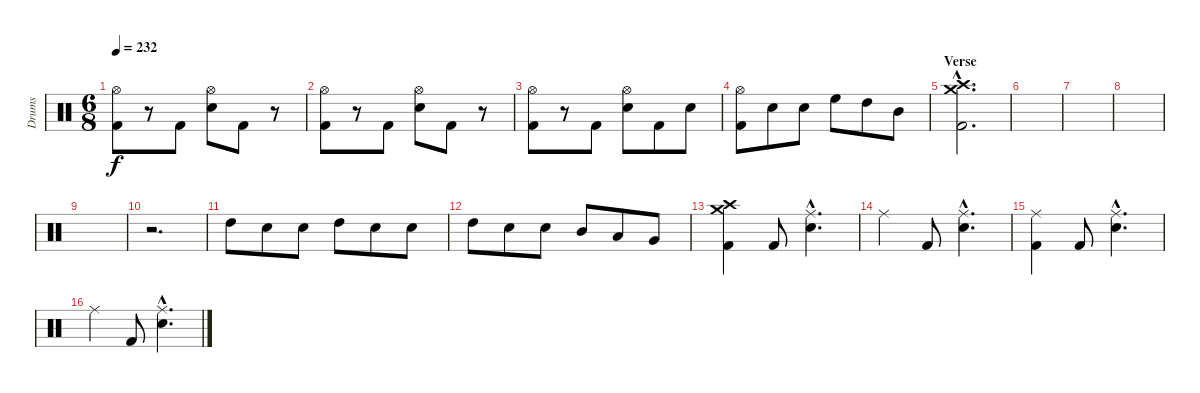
\track ("Drums" "Drums") {instrument percussion}
\staff {score}
\articulation defaults
\ts (6 8)
\tempo 232
\clef neutral
\ks c
("Hi-Hat (open)" "Kick (hit) 2").8{dy f} r.8 "Kick (hit) 2".8 ("Hi-Hat (open)" "Snare (hit) 2").8 "Kick (hit) 2".8 r.8 |
("Hi-Hat (open)" "Kick (hit) 2").8 r.8 "Kick (hit) 2".8 ("Hi-Hat (open)" "Snare (hit) 2").8 "Kick (hit) 2".8 r.8 |
("Hi-Hat (open)" "Kick (hit) 2").8 r.8 "Kick (hit) 2".8 ("Hi-Hat (open)" "Snare (hit) 2").8 "Kick (hit) 2".8 "Snare (hit) 2".8 |
("Hi-Hat (open)" "Kick (hit) 2").8 "Snare (hit) 2".8 "Snare (hit) 2".8 "High Floor Tom (hit)".8 "High Tom (hit)".8 "Mid Tom (hit)".8 |
\section ("" "Verse")
("Crash medium (hit)"{hac} "Crash high (hit)"{hac} "Kick (hit) 2"{hac}).2{d} |
|
|
|
|
r.2{d} |
"High Tom (hit)".8 "Snare (hit) 2".8 "Snare (hit) 2".8 "High Tom (hit)".8 "Snare (hit) 2".8 "Snare (hit) 2".8 |
"High Tom (hit)".8 "Snare (hit) 2".8 "Snare (hit) 2".8 "Mid Tom (hit)".8 "Low Tom (hit)".8 "Very Low Tom (hit)".8 |
("Crash medium (hit)" "Crash high (hit)" "Kick (hit) 2").4 "Kick (hit) 2".8 ("Ride (middle)"{hac} "Snare (hit) 2"{hac}).4{d} |
"Ride (middle)".4 "Kick (hit) 2".8 ("Ride (middle)"{hac} "Snare (hit) 2"{hac}).4{d} |
("Ride (middle)" "Kick (hit) 2").4 "Kick (hit) 2".8 ("Ride (middle)"{hac} "Snare (hit) 2"{hac}).4{d} |
"Ride (middle)".4 "Kick (hit) 2".8 ("Ride (middle)"{hac} "Snare (hit) 2"{hac}).4{d}
